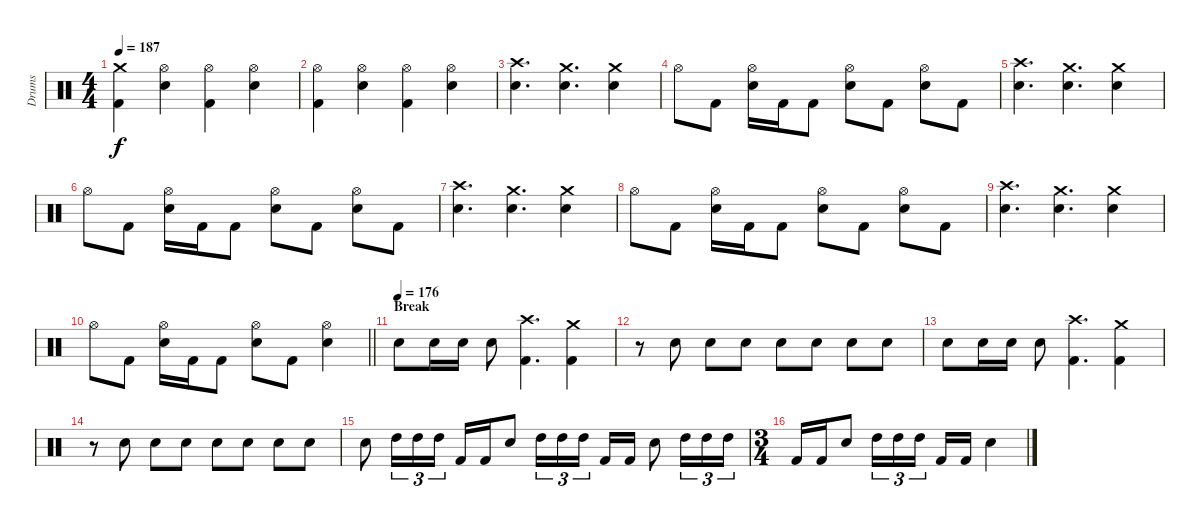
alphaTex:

\track ("Drums" "Drums") {instrument percussion}
\staff {score}
\articulation defaults
\ts (4 4)
\tempo 187
\clef neutral
\ks c
("Crash medium (hit)" "Kick (hit) 2").4{dy f} ("Hi-Hat (open)" "Snare (hit) 2").4 ("Hi-Hat (open)" "Kick (hit) 2").4 ("Hi-Hat (open)" "Snare (hit) 2").4 |
("Hi-Hat (open)" "Kick (hit) 2").4 ("Hi-Hat (open)" "Snare (hit) 2").4 ("Hi-Hat (open)" "Kick (hit) 2").4 ("Hi-Hat (open)" "Snare (hit) 2").4 |
("Crash high (hit)" "Snare (hit) 2").4{d} ("Crash medium (hit)" "Snare (hit) 2").4{d} ("Crash medium (hit)" "Snare (hit) 2").4 |
"Hi-Hat (open)".8 "Kick (hit) 2".8 ("Hi-Hat (open)" "Snare (hit) 2").16 "Kick (hit) 2".16 "Kick (hit) 2".8 ("Hi-Hat (open)" "Snare (hit) 2").8 "Kick (hit) 2".8 ("Hi-Hat (open)" "Snare (hit) 2").8 "Kick (hit) 2".8 |
("Crash high (hit)" "Snare (hit) 2").4{d} ("Crash medium (hit)" "Snare (hit) 2").4{d} ("Crash medium (hit)" "Snare (hit) 2").4 |
"Hi-Hat (open)".8 "Kick (hit) 2".8 ("Hi-Hat (open)" "Snare (hit) 2").16 "Kick (hit) 2".16 "Kick (hit) 2".8 ("Hi-Hat (open)" "Snare (hit) 2").8 "Kick (hit) 2".8 ("Hi-Hat (open)" "Snare (hit) 2").8 "Kick (hit) 2".8 |
("Crash high (hit)" "Snare (hit) 2").4{d} ("Crash medium (hit)" "Snare (hit) 2").4{d} ("Crash medium (hit)" "Snare (hit) 2").4 |
"Hi-Hat (open)".8 "Kick (hit) 2".8 ("Hi-Hat (open)" "Snare (hit) 2").16 "Kick (hit) 2".16 "Kick (hit) 2".8 ("Hi-Hat (open)" "Snare (hit) 2").8 "Kick (hit) 2".8 ("Hi-Hat (open)" "Snare (hit) 2").8 "Kick (hit) 2".8 |
("Crash high (hit)" "Snare (hit) 2").4{d} ("Crash medium (hit)" "Snare (hit) 2").4{d} ("Crash medium (hit)" "Snare (hit) 2").4 |
\barLineRight lightlight "Hi-Hat (open)".8 "Kick (hit) 2".8
("Hi-Hat (open)" "Snare (hit) 2").16 "Kick (hit) 2".16 "Kick (hit) 2".8 ("Hi-Hat (open)" "Snare (hit) 2").8 "Kick (hit) 2".8 ("Hi-Hat (open)" "Snare (hit) 2").4 |
\section ("" "Break")
\tempo (176)
"Snare (hit) 2".8 "Snare (hit) 2".16 "Snare (hit) 2".16 "Snare (hit) 2".8 ("Crash high (hit)" "Kick (hit) 2").4{d} ("Crash medium (hit)" "Kick (hit) 2").4 |
r.8 "Snare (hit) 2".8 "Snare (hit) 2".8 "Snare (hit) 2".8 "Snare (hit) 2".8 "Snare (hit) 2".8 "Snare (hit) 2".8 "Snare (hit) 2".8 |
"Snare (hit) 2".8 "Snare (hit) 2".16 "Snare (hit) 2".16 "Snare (hit) 2".8 ("Crash high (hit)" "Kick (hit) 2").4{d} ("Crash medium (hit)" "Kick (hit) 2").4 |
r.8 "Snare (hit) 2".8 "Snare (hit) 2".8 "Snare (hit) 2".8 "Snare (hit) 2".8 "Snare (hit) 2".8 "Snare (hit) 2".8 "Snare (hit) 2".8 |
"Snare (hit) 2".8 "High Tom (hit)".16{tu (3 2)} "High Tom (hit)".16{tu (3 2)} "High Tom (hit)".16{tu (3 2)} "Kick (hit) 2".16 "Kick (hit) 2".16 "Snare (hit) 2".8 "High Tom (hit)".16{tu (3 2)} "High Tom (hit)".16{tu (3 2)} "High Tom (hit)".16{tu (3 2) beam splitsecondary} "Kick (hit) 2".16 "Kick (hit) 2".16 "Snare (hit) 2".8 "High Tom (hit)".16{tu (3 2)} "High Tom (hit)".16{tu (3 2)} "High Tom (hit)".16{tu (3 2)} |
\ts (3 4)
"Kick (hit) 2".16 "Kick (hit) 2".16 "Snare (hit) 2".8 "High Tom (hit)".16{tu (3 2)} "High Tom (hit)".16{tu (3 2)} "High Tom (hit)".16{tu (3 2) beam splitsecondary} "Kick (hit) 2".16 "Kick (hit) 2".16 "Snare (hit) 2".4
